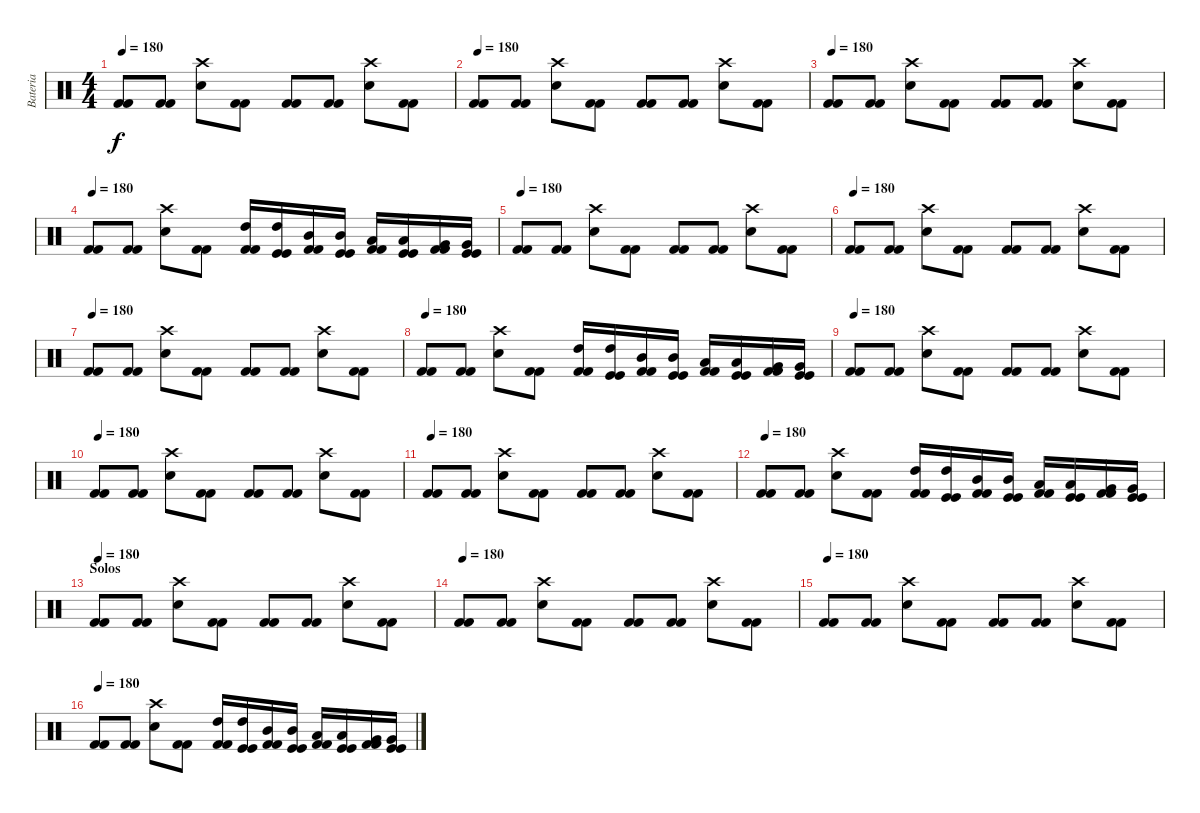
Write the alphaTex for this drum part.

\track ("Bateria" "Bateria") {instrument percussion}
\staff {score}
\articulation defaults
\ts (4 4)
\tempo 180
\clef neutral
\ks c
("Kick (hit) 2" "Kick (hit) 2").8{dy f} ("Kick (hit) 2" "Kick (hit) 2").8 ("Snare (hit) 2" "Crash high (hit)").8 ("Kick (hit) 2" "Kick (hit) 2").8 ("Kick (hit) 2" "Kick (hit) 2").8 ("Kick (hit) 2" "Kick (hit) 2").8 ("Snare (hit) 2" "Crash high (hit)").8 ("Kick (hit) 2" "Kick (hit) 2").8 |
\tempo 180
("Kick (hit) 2" "Kick (hit) 2").8 ("Kick (hit) 2" "Kick (hit) 2").8 ("Snare (hit) 2" "Crash high (hit)").8 ("Kick (hit) 2" "Kick (hit) 2").8 ("Kick (hit) 2" "Kick (hit) 2").8 ("Kick (hit) 2" "Kick (hit) 2").8 ("Snare (hit) 2" "Crash high (hit)").8 ("Kick (hit) 2" "Kick (hit) 2").8 |
\tempo 180
("Kick (hit) 2" "Kick (hit) 2").8 ("Kick (hit) 2" "Kick (hit) 2").8 ("Snare (hit) 2" "Crash high (hit)").8 ("Kick (hit) 2" "Kick (hit) 2").8 ("Kick (hit) 2" "Kick (hit) 2").8 ("Kick (hit) 2" "Kick (hit) 2").8 ("Snare (hit) 2" "Crash high (hit)").8 ("Kick (hit) 2" "Kick (hit) 2").8 |
\tempo 180
("Kick (hit) 2" "Kick (hit) 2").8 ("Kick (hit) 2" "Kick (hit) 2").8 ("Snare (hit) 2" "Crash high (hit)").8 ("Kick (hit) 2" "Kick (hit) 2").8 ("Kick (hit) 2" "Kick (hit) 2" "High Tom (hit)").16 ("Kick (hit)" "Kick (hit)" "High Tom (hit)").16 ("Kick (hit) 2" "Kick (hit) 2" "Mid Tom (hit)").16 ("Kick (hit)" "Kick (hit)" "Mid Tom (hit)").16 ("Kick (hit) 2" "Kick (hit) 2" "Low Tom (hit)").16 ("Kick (hit)" "Kick (hit)" "Low Tom (hit)").16 ("Kick (hit) 2" "Kick (hit) 2" "Very Low Tom (hit)").16 ("Kick (hit)" "Kick (hit)" "Very Low Tom (hit)").16 |
\tempo 180
("Kick (hit) 2" "Kick (hit) 2").8 ("Kick (hit) 2" "Kick (hit) 2").8 ("Snare (hit) 2" "Crash high (hit)").8 ("Kick (hit) 2" "Kick (hit) 2").8 ("Kick (hit) 2" "Kick (hit) 2").8 ("Kick (hit) 2" "Kick (hit) 2").8 ("Snare (hit) 2" "Crash high (hit)").8 ("Kick (hit) 2" "Kick (hit) 2").8 |
\tempo 180
("Kick (hit) 2" "Kick (hit) 2").8 ("Kick (hit) 2" "Kick (hit) 2").8 ("Snare (hit) 2" "Crash high (hit)").8 ("Kick (hit) 2" "Kick (hit) 2").8 ("Kick (hit) 2" "Kick (hit) 2").8 ("Kick (hit) 2" "Kick (hit) 2").8 ("Snare (hit) 2" "Crash high (hit)").8 ("Kick (hit) 2" "Kick (hit) 2").8 |
\tempo 180
("Kick (hit) 2" "Kick (hit) 2").8 ("Kick (hit) 2" "Kick (hit) 2").8 ("Snare (hit) 2" "Crash high (hit)").8 ("Kick (hit) 2" "Kick (hit) 2").8 ("Kick (hit) 2" "Kick (hit) 2").8 ("Kick (hit) 2" "Kick (hit) 2").8 ("Snare (hit) 2" "Crash high (hit)").8 ("Kick (hit) 2" "Kick (hit) 2").8 |
\tempo 180
("Kick (hit) 2" "Kick (hit) 2").8 ("Kick (hit) 2" "Kick (hit) 2").8 ("Snare (hit) 2" "Crash high (hit)").8 ("Kick (hit) 2" "Kick (hit) 2").8 ("Kick (hit) 2" "Kick (hit) 2" "High Tom (hit)").16 ("Kick (hit)" "Kick (hit)" "High Tom (hit)").16 ("Kick (hit) 2" "Kick (hit) 2" "Mid Tom (hit)").16 ("Kick (hit)" "Kick (hit)" "Mid Tom (hit)").16 ("Kick (hit) 2" "Kick (hit) 2" "Low Tom (hit)").16 ("Kick (hit)" "Kick (hit)" "Low Tom (hit)").16 ("Kick (hit) 2" "Kick (hit) 2" "Very Low Tom (hit)").16 ("Kick (hit)" "Kick (hit)" "Very Low Tom (hit)").16 |
\tempo 180
("Kick (hit) 2" "Kick (hit) 2").8 ("Kick (hit) 2" "Kick (hit) 2").8 ("Snare (hit) 2" "Crash high (hit)").8 ("Kick (hit) 2" "Kick (hit) 2").8 ("Kick (hit) 2" "Kick (hit) 2").8 ("Kick (hit) 2" "Kick (hit) 2").8 ("Snare (hit) 2" "Crash high (hit)").8 ("Kick (hit) 2" "Kick (hit) 2").8 |
\tempo 180
("Kick (hit) 2" "Kick (hit) 2").8 ("Kick (hit) 2" "Kick (hit) 2").8 ("Snare (hit) 2" "Crash high (hit)").8 ("Kick (hit) 2" "Kick (hit) 2").8 ("Kick (hit) 2" "Kick (hit) 2").8 ("Kick (hit) 2" "Kick (hit) 2").8 ("Snare (hit) 2" "Crash high (hit)").8 ("Kick (hit) 2" "Kick (hit) 2").8 |
\tempo 180
("Kick (hit) 2" "Kick (hit) 2").8 ("Kick (hit) 2" "Kick (hit) 2").8 ("Snare (hit) 2" "Crash high (hit)").8 ("Kick (hit) 2" "Kick (hit) 2").8 ("Kick (hit) 2" "Kick (hit) 2").8 ("Kick (hit) 2" "Kick (hit) 2").8 ("Snare (hit) 2" "Crash high (hit)").8 ("Kick (hit) 2" "Kick (hit) 2").8 |
\tempo 180
("Kick (hit) 2" "Kick (hit) 2").8 ("Kick (hit) 2" "Kick (hit) 2").8 ("Snare (hit) 2" "Crash high (hit)").8 ("Kick (hit) 2" "Kick (hit) 2").8 ("Kick (hit) 2" "Kick (hit) 2" "High Tom (hit)").16 ("Kick (hit)" "Kick (hit)" "High Tom (hit)").16 ("Kick (hit) 2" "Kick (hit) 2" "Mid Tom (hit)").16 ("Kick (hit)" "Kick (hit)" "Mid Tom (hit)").16 ("Kick (hit) 2" "Kick (hit) 2" "Low Tom (hit)").16 ("Kick (hit)" "Kick (hit)" "Low Tom (hit)").16 ("Kick (hit) 2" "Kick (hit) 2" "Very Low Tom (hit)").16 ("Kick (hit)" "Kick (hit)" "Very Low Tom (hit)").16 |
\section ("" "Solos")
\tempo 180
("Kick (hit) 2" "Kick (hit) 2").8 ("Kick (hit) 2" "Kick (hit) 2").8 ("Snare (hit) 2" "Crash high (hit)").8 ("Kick (hit) 2" "Kick (hit) 2").8 ("Kick (hit) 2" "Kick (hit) 2").8 ("Kick (hit) 2" "Kick (hit) 2").8 ("Snare (hit) 2" "Crash high (hit)").8 ("Kick (hit) 2" "Kick (hit) 2").8 |
\tempo 180
("Kick (hit) 2" "Kick (hit) 2").8 ("Kick (hit) 2" "Kick (hit) 2").8 ("Snare (hit) 2" "Crash high (hit)").8 ("Kick (hit) 2" "Kick (hit) 2").8 ("Kick (hit) 2" "Kick (hit) 2").8 ("Kick (hit) 2" "Kick (hit) 2").8 ("Snare (hit) 2" "Crash high (hit)").8 ("Kick (hit) 2" "Kick (hit) 2").8 |
\tempo 180
("Kick (hit) 2" "Kick (hit) 2").8 ("Kick (hit) 2" "Kick (hit) 2").8 ("Snare (hit) 2" "Crash high (hit)").8 ("Kick (hit) 2" "Kick (hit) 2").8 ("Kick (hit) 2" "Kick (hit) 2").8 ("Kick (hit) 2" "Kick (hit) 2").8 ("Snare (hit) 2" "Crash high (hit)").8 ("Kick (hit) 2" "Kick (hit) 2").8 |
\tempo 180
("Kick (hit) 2" "Kick (hit) 2").8 ("Kick (hit) 2" "Kick (hit) 2").8 ("Snare (hit) 2" "Crash high (hit)").8 ("Kick (hit) 2" "Kick (hit) 2").8 ("Kick (hit) 2" "Kick (hit) 2" "High Tom (hit)").16 ("Kick (hit)" "Kick (hit)" "High Tom (hit)").16 ("Kick (hit) 2" "Kick (hit) 2" "Mid Tom (hit)").16 ("Kick (hit)" "Kick (hit)" "Mid Tom (hit)").16 ("Kick (hit) 2" "Kick (hit) 2" "Low Tom (hit)").16 ("Kick (hit)" "Kick (hit)" "Low Tom (hit)").16 ("Kick (hit) 2" "Kick (hit) 2" "Very Low Tom (hit)").16 ("Kick (hit)" "Kick (hit)" "Very Low Tom (hit)").16
